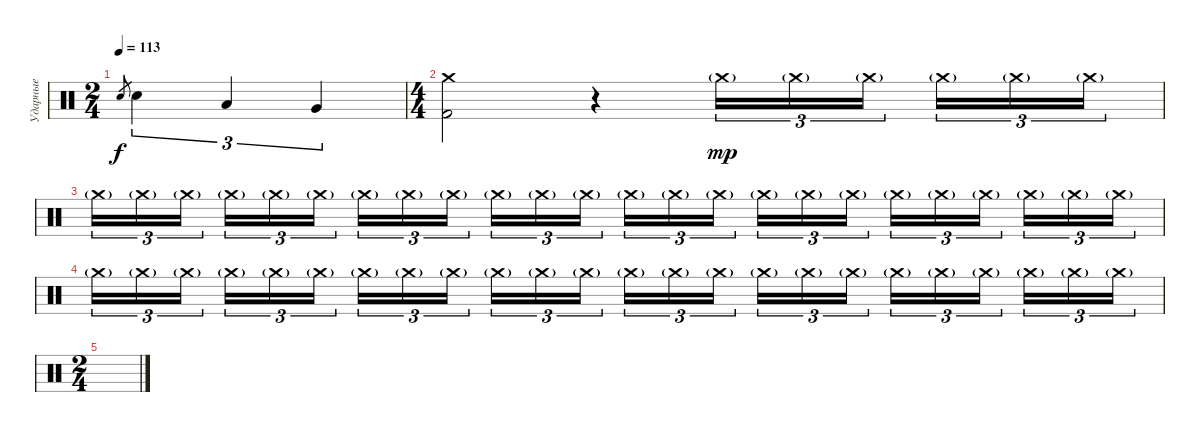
\track ("Ударные" "Ударные") {instrument percussion}
\staff {score}
\articulation defaults
\ts (2 4)
\tempo 113
\clef neutral
\ks c "Electric Snare (hit)".8{gr dy f} "Electric Snare (hit)".4{tu (3 2)} "Low Tom (hit)".4{tu (3 2)} "Very Low Tom (hit)".4{tu (3 2)}
|
\ts (4 4)
("Crash medium (hit)" "Kick (hit) 2").2 r.4 "Crash medium (hit)"{g}.16{tu (3 2) dy mp} "Crash medium (hit)"{g}.16{tu (3 2)} "Crash medium (hit)"{g}.16{tu (3 2) beam splitsecondary} "Crash medium (hit)"{g}.16{tu (3 2)} "Crash medium (hit)"{g}.16{tu (3 2)} "Crash medium (hit)"{g}.16{tu (3 2)} |
"Crash medium (hit)"{g}.16{tu (3 2)} "Crash medium (hit)"{g}.16{tu (3 2)} "Crash medium (hit)"{g}.16{tu (3 2) beam splitsecondary} "Crash medium (hit)"{g}.16{tu (3 2)} "Crash medium (hit)"{g}.16{tu (3 2)} "Crash medium (hit)"{g}.16{tu (3 2)} "Crash medium (hit)"{g}.16{tu (3 2)} "Crash medium (hit)"{g}.16{tu (3 2)} "Crash medium (hit)"{g}.16{tu (3 2) beam splitsecondary} "Crash medium (hit)"{g}.16{tu (3 2)} "Crash medium (hit)"{g}.16{tu (3 2)} "Crash medium (hit)"{g}.16{tu (3 2)} "Crash medium (hit)"{g}.16{tu (3 2)} "Crash medium (hit)"{g}.16{tu (3 2)} "Crash medium (hit)"{g}.16{tu (3 2) beam splitsecondary} "Crash medium (hit)"{g}.16{tu (3 2)} "Crash medium (hit)"{g}.16{tu (3 2)} "Crash medium (hit)"{g}.16{tu (3 2)} "Crash medium (hit)"{g}.16{tu (3 2)} "Crash medium (hit)"{g}.16{tu (3 2)} "Crash medium (hit)"{g}.16{tu (3 2) beam splitsecondary} "Crash medium (hit)"{g}.16{tu (3 2)} "Crash medium (hit)"{g}.16{tu (3 2)} "Crash medium (hit)"{g}.16{tu (3 2)} |
"Crash medium (hit)"{g}.16{tu (3 2)} "Crash medium (hit)"{g}.16{tu (3 2)} "Crash medium (hit)"{g}.16{tu (3 2) beam splitsecondary} "Crash medium (hit)"{g}.16{tu (3 2)} "Crash medium (hit)"{g}.16{tu (3 2)} "Crash medium (hit)"{g}.16{tu (3 2)} "Crash medium (hit)"{g}.16{tu (3 2)} "Crash medium (hit)"{g}.16{tu (3 2)} "Crash medium (hit)"{g}.16{tu (3 2) beam splitsecondary} "Crash medium (hit)"{g}.16{tu (3 2)} "Crash medium (hit)"{g}.16{tu (3 2)} "Crash medium (hit)"{g}.16{tu (3 2)} "Crash medium (hit)"{g}.16{tu (3 2)} "Crash medium (hit)"{g}.16{tu (3 2)} "Crash medium (hit)"{g}.16{tu (3 2) beam splitsecondary} "Crash medium (hit)"{g}.16{tu (3 2)} "Crash medium (hit)"{g}.16{tu (3 2)} "Crash medium (hit)"{g}.16{tu (3 2)} "Crash medium (hit)"{g}.16{tu (3 2)} "Crash medium (hit)"{g}.16{tu (3 2)} "Crash medium (hit)"{g}.16{tu (3 2) beam splitsecondary} "Crash medium (hit)"{g}.16{tu (3 2)} "Crash medium (hit)"{g}.16{tu (3 2)} "Crash medium (hit)"{g}.16{tu (3 2)} |
\ts (2 4)
